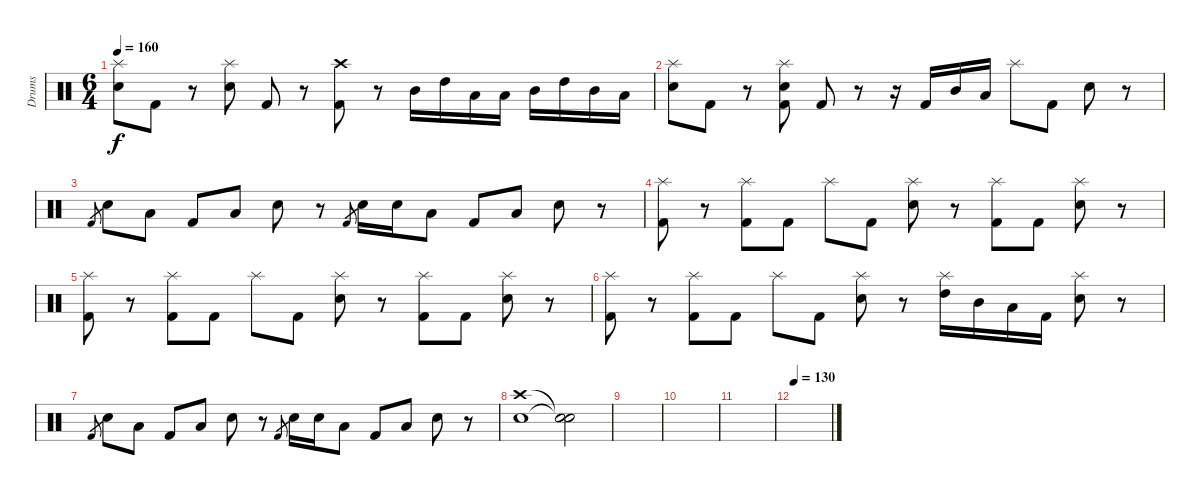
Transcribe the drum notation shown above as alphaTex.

\track ("Drums" "Drums") {instrument percussion}
\staff {score}
\articulation defaults
\ts (6 4)
\tempo 160
\clef neutral
\ks c
("Splash (hit)" "Electric Snare (hit)").8{dy f} "Kick (hit) 2".8 r.8 ("Splash (hit)" "Electric Snare (hit)").8 "Kick (hit) 2".8 r.8 ("Crash high (hit)" "Kick (hit) 2").8 r.8 "Mid Tom (hit)".16 "High Tom (hit)".16 "Low Floor Tom (hit)".16 "Low Tom (hit)".16 "Mid Tom (hit)".16 "High Tom (hit)".16 "Mid Tom (hit)".16 "Low Tom (hit)".16 |
("Splash (hit)" "Electric Snare (hit)").8 "Kick (hit) 2".8 r.8 ("Splash (hit)" "Electric Snare (hit)" "Kick (hit) 2").8 "Kick (hit) 2".8 r.8 r.16 "Kick (hit) 2".16 "Mid Tom (hit)".16 "Low Floor Tom (hit)".16 "Splash (hit)".8 "Kick (hit) 2".8 "Electric Snare (hit)".8 r.8 |
"Kick (hit) 2".8{gr} "Snare (hit) 2".8 "Low Tom (hit)".8 "Kick (hit) 2".8 "Low Tom (hit)".8 "Snare (hit) 2".8 r.8 "Kick (hit) 2".8{gr} "Snare (hit) 2".16 "Snare (hit) 2".16 "Low Tom (hit)".8 "Kick (hit) 2".8 "Low Tom (hit)".8 "Snare (hit) 2".8 r.8 |
("Splash (hit)" "Kick (hit) 2").8 r.8 ("Splash (hit)" "Kick (hit) 2").8 "Kick (hit) 2".8 "Splash (hit)".8 "Kick (hit) 2".8 ("Splash (hit)" "Electric Snare (hit)").8 r.8 ("Splash (hit)" "Kick (hit) 2").8 "Kick (hit) 2".8 ("Splash (hit)" "Electric Snare (hit)").8 r.8 |
("Splash (hit)" "Kick (hit) 2").8 r.8 ("Splash (hit)" "Kick (hit) 2").8 "Kick (hit) 2".8 "Splash (hit)".8 "Kick (hit) 2".8 ("Splash (hit)" "Electric Snare (hit)").8 r.8 ("Splash (hit)" "Kick (hit) 2").8 "Kick (hit) 2".8 ("Splash (hit)" "Electric Snare (hit)").8 r.8 |
("Splash (hit)" "Kick (hit) 2").8 r.8 ("Splash (hit)" "Kick (hit) 2").8 "Kick (hit) 2".8 "Splash (hit)".8 "Kick (hit) 2".8 ("Splash (hit)" "Electric Snare (hit)").8 r.8 ("Splash (hit)" "High Tom (hit)").16 "Mid Tom (hit)".16 "Low Tom (hit)".16 "Kick (hit) 2".16 ("Splash (hit)" "Electric Snare (hit)").8 r.8 |
"Kick (hit) 2".8{gr} "Snare (hit) 2".8 "Low Tom (hit)".8 "Kick (hit) 2".8 "Low Tom (hit)".8 "Snare (hit) 2".8 r.8 "Kick (hit) 2".8{gr} "Snare (hit) 2".16 "Snare (hit) 2".16 "Low Tom (hit)".8 "Kick (hit) 2".8 "Low Tom (hit)".8 "Snare (hit) 2".8 r.8 |
("Crash high (hit)" "Electric Snare (hit)").1 ("Snare (hit)"{t} "Snare (hit)"{t}).2 |
|
|
|
\tempo 130
